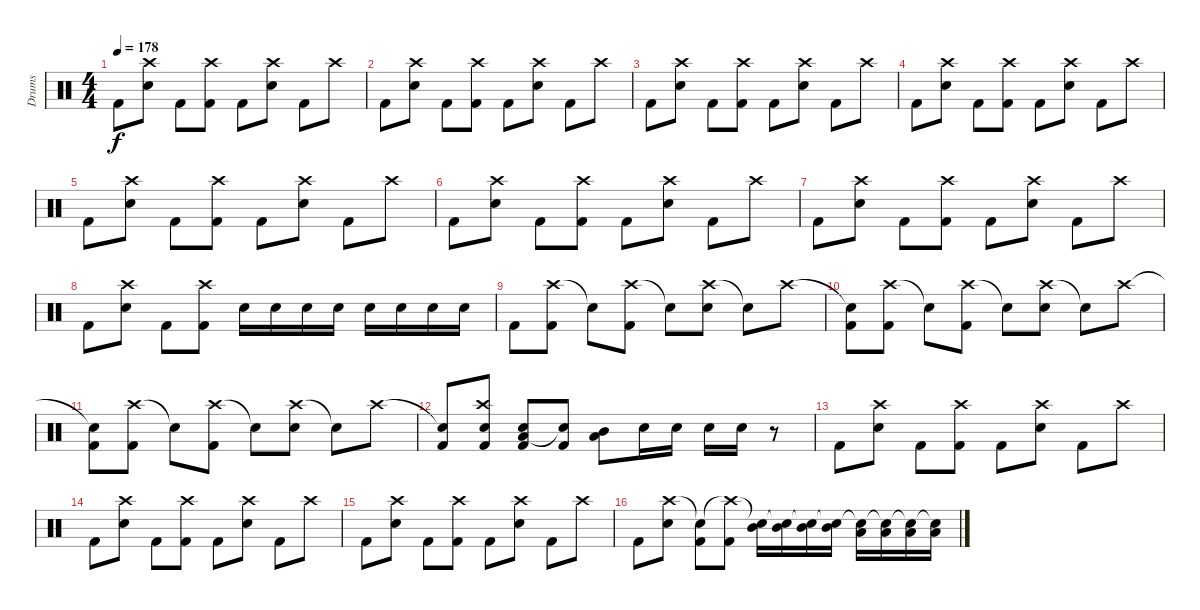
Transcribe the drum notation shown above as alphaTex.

\track ("Drums" "Drums") {instrument percussion}
\staff {score}
\articulation defaults
\ts (4 4)
\tempo 178
\clef neutral
\ks c "Kick (hit) 2".8{dy f}
("Crash high (hit)" "Electric Snare (hit)").8 "Kick (hit) 2".8 ("Crash high (hit)" "Kick (hit) 2").8 "Kick (hit) 2".8 ("Crash high (hit)" "Electric Snare (hit)").8 "Kick (hit) 2".8 "Crash high (hit)".8 |
"Kick (hit) 2".8 ("Crash high (hit)" "Electric Snare (hit)").8 "Kick (hit) 2".8 ("Crash high (hit)" "Kick (hit) 2").8 "Kick (hit) 2".8 ("Crash high (hit)" "Electric Snare (hit)").8 "Kick (hit) 2".8 "Crash high (hit)".8 |
"Kick (hit) 2".8 ("Crash high (hit)" "Electric Snare (hit)").8 "Kick (hit) 2".8 ("Crash high (hit)" "Kick (hit) 2").8 "Kick (hit) 2".8 ("Crash high (hit)" "Electric Snare (hit)").8 "Kick (hit) 2".8 "Crash high (hit)".8 |
"Kick (hit) 2".8 ("Crash high (hit)" "Electric Snare (hit)").8 "Kick (hit) 2".8 ("Crash high (hit)" "Kick (hit) 2").8 "Kick (hit) 2".8 ("Crash high (hit)" "Electric Snare (hit)").8 "Kick (hit) 2".8 "Crash high (hit)".8 |
"Kick (hit) 2".8 ("Crash high (hit)" "Electric Snare (hit)").8 "Kick (hit) 2".8 ("Crash high (hit)" "Kick (hit) 2").8 "Kick (hit) 2".8 ("Crash high (hit)" "Electric Snare (hit)").8 "Kick (hit) 2".8 "Crash high (hit)".8 |
"Kick (hit) 2".8 ("Crash high (hit)" "Electric Snare (hit)").8 "Kick (hit) 2".8 ("Crash high (hit)" "Kick (hit) 2").8 "Kick (hit) 2".8 ("Crash high (hit)" "Electric Snare (hit)").8 "Kick (hit) 2".8 "Crash high (hit)".8 |
"Kick (hit) 2".8 ("Crash high (hit)" "Electric Snare (hit)").8 "Kick (hit) 2".8 ("Crash high (hit)" "Kick (hit) 2").8 "Kick (hit) 2".8 ("Crash high (hit)" "Electric Snare (hit)").8 "Kick (hit) 2".8 "Crash high (hit)".8 |
"Kick (hit) 2".8 ("Crash high (hit)" "Electric Snare (hit)").8 "Kick (hit) 2".8 ("Crash high (hit)" "Kick (hit) 2").8 "Electric Snare (hit)".16 "Electric Snare (hit)".16 "Electric Snare (hit)".16 "Electric Snare (hit)".16 "Electric Snare (hit)".16 "Electric Snare (hit)".16 "Electric Snare (hit)".16 "Electric Snare (hit)".16 |
"Kick (hit) 2".8 ("Crash high (hit)" "Kick (hit) 2").8 "Snare (hit)"{t}.8 ("Crash high (hit)" "Kick (hit) 2").8 "Snare (hit)"{t}.8 ("Crash high (hit)" "Electric Snare (hit)").8 "Snare (hit)"{t}.8 "Crash high (hit)".8 |
("Snare (hit)"{t} "Kick (hit) 2").8 ("Crash high (hit)" "Kick (hit) 2").8 "Snare (hit)"{t}.8 ("Crash high (hit)" "Kick (hit) 2").8 "Snare (hit)"{t}.8 ("Crash high (hit)" "Electric Snare (hit)").8 "Snare (hit)"{t}.8 "Crash high (hit)".8 |
("Snare (hit)"{t} "Kick (hit) 2").8 ("Crash high (hit)" "Kick (hit) 2").8 "Snare (hit)"{t}.8 ("Crash high (hit)" "Kick (hit) 2").8 "Snare (hit)"{t}.8 ("Crash high (hit)" "Electric Snare (hit)").8 "Snare (hit)"{t}.8 "Crash high (hit)".8 |
("Snare (hit)"{t} "Kick (hit) 2").8 ("Crash high (hit)" "Electric Snare (hit)" "Kick (hit) 2").8 ("Low Floor Tom (hit)" "Electric Snare (hit)" "Kick (hit) 2").8 ("Snare (hit)"{t} "Kick (hit) 2").8 ("Low Tom (hit)" "Mid Tom (hit)").8 "Electric Snare (hit)".16 "Electric Snare (hit)".16 "Electric Snare (hit)".16 "Electric Snare (hit)".16 r.8 |
"Kick (hit) 2".8 ("Crash high (hit)" "Electric Snare (hit)").8 "Kick (hit) 2".8 ("Crash high (hit)" "Kick (hit) 2").8 "Kick (hit) 2".8 ("Crash high (hit)" "Electric Snare (hit)").8 "Kick (hit) 2".8 "Crash high (hit)".8 |
"Kick (hit) 2".8 ("Crash high (hit)" "Electric Snare (hit)").8 "Kick (hit) 2".8 ("Crash high (hit)" "Kick (hit) 2").8 "Kick (hit) 2".8 ("Crash high (hit)" "Electric Snare (hit)").8 "Kick (hit) 2".8 "Crash high (hit)".8 |
"Kick (hit) 2".8 ("Crash high (hit)" "Electric Snare (hit)").8 "Kick (hit) 2".8 ("Crash high (hit)" "Kick (hit) 2").8 "Kick (hit) 2".8 ("Crash high (hit)" "Electric Snare (hit)").8 "Kick (hit) 2".8 "Crash high (hit)".8 |
"Kick (hit) 2".8 ("Crash high (hit)" "Electric Snare (hit)").8 ("Snare (hit)"{t} "Kick (hit) 2").8 ("Crash high (hit)"{t} "Kick (hit) 2").8 ("Snare (hit)"{t} "Mid Tom (hit)").16 ("Snare (hit)"{t} "Mid Tom (hit)").16 ("Snare (hit)"{t} "Mid Tom (hit)").16 ("Snare (hit)"{t} "Mid Tom (hit)").16 ("Snare (hit)"{t} "Low Tom (hit)").16 ("Snare (hit)"{t} "Low Tom (hit)").16 ("Snare (hit)"{t} "Low Tom (hit)").16 ("Snare (hit)"{t} "Low Tom (hit)").16
